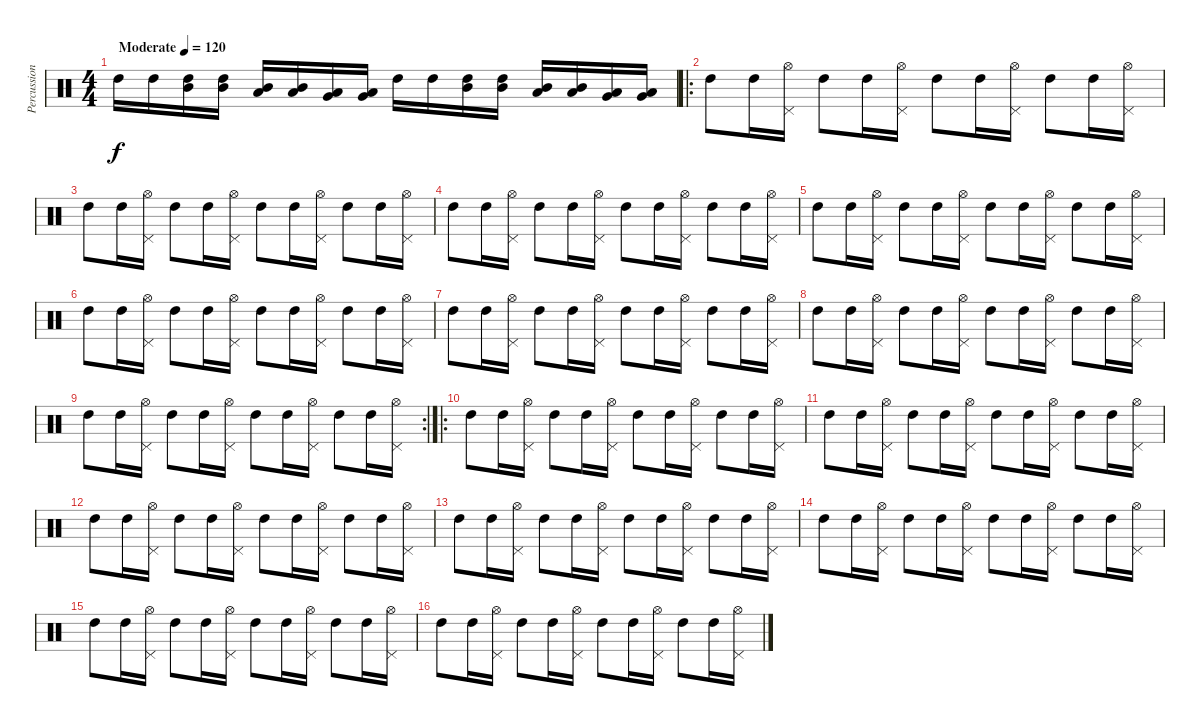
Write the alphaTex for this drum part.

\track ("Percussions" "Percussion") {instrument percussion}
\staff {score}
\articulation defaults
\ts (4 4)
\tempo (120 "Moderate")
\clef neutral
\ks c "High Tom (hit)".16{dy f} "High Tom (hit)".16
("Mid Tom (hit)" "High Tom (hit)").16 ("Mid Tom (hit)" "High Tom (hit)").16 ("Low Tom (hit)" "Mid Tom (hit)").16 ("Low Tom (hit)" "Mid Tom (hit)").16 ("Very Low Tom (hit)" "Low Tom (hit)").16 ("Very Low Tom (hit)" "Low Tom (hit)").16 "High Tom (hit)".16 "High Tom (hit)".16 ("Mid Tom (hit)" "High Tom (hit)").16 ("Mid Tom (hit)" "High Tom (hit)").16 ("Low Tom (hit)" "Mid Tom (hit)").16 ("Low Tom (hit)" "Mid Tom (hit)").16 ("Very Low Tom (hit)" "Low Tom (hit)").16 ("Very Low Tom (hit)" "Low Tom (hit)").16 |
\ro "High Tom (hit)".8 "High Tom (hit)".16
("Pedal Hi-Hat (hit)" "Hi-Hat (open)").16 "High Tom (hit)".8 "High Tom (hit)".16 ("Pedal Hi-Hat (hit)" "Hi-Hat (open)").16 "High Tom (hit)".8 "High Tom (hit)".16 ("Pedal Hi-Hat (hit)" "Hi-Hat (open)").16 "High Tom (hit)".8 "High Tom (hit)".16 ("Pedal Hi-Hat (hit)" "Hi-Hat (open)").16 |
"High Tom (hit)".8 "High Tom (hit)".16 ("Pedal Hi-Hat (hit)" "Hi-Hat (open)").16 "High Tom (hit)".8 "High Tom (hit)".16 ("Pedal Hi-Hat (hit)" "Hi-Hat (open)").16 "High Tom (hit)".8 "High Tom (hit)".16 ("Pedal Hi-Hat (hit)" "Hi-Hat (open)").16 "High Tom (hit)".8 "High Tom (hit)".16 ("Pedal Hi-Hat (hit)" "Hi-Hat (open)").16 |
"High Tom (hit)".8 "High Tom (hit)".16 ("Pedal Hi-Hat (hit)" "Hi-Hat (open)").16 "High Tom (hit)".8 "High Tom (hit)".16 ("Pedal Hi-Hat (hit)" "Hi-Hat (open)").16 "High Tom (hit)".8 "High Tom (hit)".16 ("Pedal Hi-Hat (hit)" "Hi-Hat (open)").16 "High Tom (hit)".8 "High Tom (hit)".16 ("Pedal Hi-Hat (hit)" "Hi-Hat (open)").16 |
"High Tom (hit)".8 "High Tom (hit)".16 ("Pedal Hi-Hat (hit)" "Hi-Hat (open)").16 "High Tom (hit)".8 "High Tom (hit)".16 ("Pedal Hi-Hat (hit)" "Hi-Hat (open)").16 "High Tom (hit)".8 "High Tom (hit)".16 ("Pedal Hi-Hat (hit)" "Hi-Hat (open)").16 "High Tom (hit)".8 "High Tom (hit)".16 ("Pedal Hi-Hat (hit)" "Hi-Hat (open)").16 |
"High Tom (hit)".8 "High Tom (hit)".16 ("Pedal Hi-Hat (hit)" "Hi-Hat (open)").16 "High Tom (hit)".8 "High Tom (hit)".16 ("Pedal Hi-Hat (hit)" "Hi-Hat (open)").16 "High Tom (hit)".8 "High Tom (hit)".16 ("Pedal Hi-Hat (hit)" "Hi-Hat (open)").16 "High Tom (hit)".8 "High Tom (hit)".16 ("Pedal Hi-Hat (hit)" "Hi-Hat (open)").16 |
"High Tom (hit)".8 "High Tom (hit)".16 ("Pedal Hi-Hat (hit)" "Hi-Hat (open)").16 "High Tom (hit)".8 "High Tom (hit)".16 ("Pedal Hi-Hat (hit)" "Hi-Hat (open)").16 "High Tom (hit)".8 "High Tom (hit)".16 ("Pedal Hi-Hat (hit)" "Hi-Hat (open)").16 "High Tom (hit)".8 "High Tom (hit)".16 ("Pedal Hi-Hat (hit)" "Hi-Hat (open)").16 |
"High Tom (hit)".8 "High Tom (hit)".16 ("Pedal Hi-Hat (hit)" "Hi-Hat (open)").16 "High Tom (hit)".8 "High Tom (hit)".16 ("Pedal Hi-Hat (hit)" "Hi-Hat (open)").16 "High Tom (hit)".8 "High Tom (hit)".16 ("Pedal Hi-Hat (hit)" "Hi-Hat (open)").16 "High Tom (hit)".8 "High Tom (hit)".16 ("Pedal Hi-Hat (hit)" "Hi-Hat (open)").16 |
\rc 2 "High Tom (hit)".8 "High Tom (hit)".16
("Pedal Hi-Hat (hit)" "Hi-Hat (open)").16 "High Tom (hit)".8 "High Tom (hit)".16 ("Pedal Hi-Hat (hit)" "Hi-Hat (open)").16 "High Tom (hit)".8 "High Tom (hit)".16 ("Pedal Hi-Hat (hit)" "Hi-Hat (open)").16 "High Tom (hit)".8 "High Tom (hit)".16 ("Pedal Hi-Hat (hit)" "Hi-Hat (open)").16 |
\ro "High Tom (hit)".8 "High Tom (hit)".16
("Pedal Hi-Hat (hit)" "Hi-Hat (open)").16 "High Tom (hit)".8 "High Tom (hit)".16 ("Pedal Hi-Hat (hit)" "Hi-Hat (open)").16 "High Tom (hit)".8 "High Tom (hit)".16 ("Pedal Hi-Hat (hit)" "Hi-Hat (open)").16 "High Tom (hit)".8 "High Tom (hit)".16 ("Pedal Hi-Hat (hit)" "Hi-Hat (open)").16 |
"High Tom (hit)".8 "High Tom (hit)".16 ("Pedal Hi-Hat (hit)" "Hi-Hat (open)").16 "High Tom (hit)".8 "High Tom (hit)".16 ("Pedal Hi-Hat (hit)" "Hi-Hat (open)").16 "High Tom (hit)".8 "High Tom (hit)".16 ("Pedal Hi-Hat (hit)" "Hi-Hat (open)").16 "High Tom (hit)".8 "High Tom (hit)".16 ("Pedal Hi-Hat (hit)" "Hi-Hat (open)").16 |
"High Tom (hit)".8 "High Tom (hit)".16 ("Pedal Hi-Hat (hit)" "Hi-Hat (open)").16 "High Tom (hit)".8 "High Tom (hit)".16 ("Pedal Hi-Hat (hit)" "Hi-Hat (open)").16 "High Tom (hit)".8 "High Tom (hit)".16 ("Pedal Hi-Hat (hit)" "Hi-Hat (open)").16 "High Tom (hit)".8 "High Tom (hit)".16 ("Pedal Hi-Hat (hit)" "Hi-Hat (open)").16 |
"High Tom (hit)".8 "High Tom (hit)".16 ("Pedal Hi-Hat (hit)" "Hi-Hat (open)").16 "High Tom (hit)".8 "High Tom (hit)".16 ("Pedal Hi-Hat (hit)" "Hi-Hat (open)").16 "High Tom (hit)".8 "High Tom (hit)".16 ("Pedal Hi-Hat (hit)" "Hi-Hat (open)").16 "High Tom (hit)".8 "High Tom (hit)".16 ("Pedal Hi-Hat (hit)" "Hi-Hat (open)").16 |
"High Tom (hit)".8 "High Tom (hit)".16 ("Pedal Hi-Hat (hit)" "Hi-Hat (open)").16 "High Tom (hit)".8 "High Tom (hit)".16 ("Pedal Hi-Hat (hit)" "Hi-Hat (open)").16 "High Tom (hit)".8 "High Tom (hit)".16 ("Pedal Hi-Hat (hit)" "Hi-Hat (open)").16 "High Tom (hit)".8 "High Tom (hit)".16 ("Pedal Hi-Hat (hit)" "Hi-Hat (open)").16 |
"High Tom (hit)".8 "High Tom (hit)".16 ("Pedal Hi-Hat (hit)" "Hi-Hat (open)").16 "High Tom (hit)".8 "High Tom (hit)".16 ("Pedal Hi-Hat (hit)" "Hi-Hat (open)").16 "High Tom (hit)".8 "High Tom (hit)".16 ("Pedal Hi-Hat (hit)" "Hi-Hat (open)").16 "High Tom (hit)".8 "High Tom (hit)".16 ("Pedal Hi-Hat (hit)" "Hi-Hat (open)").16 |
"High Tom (hit)".8 "High Tom (hit)".16 ("Pedal Hi-Hat (hit)" "Hi-Hat (open)").16 "High Tom (hit)".8 "High Tom (hit)".16 ("Pedal Hi-Hat (hit)" "Hi-Hat (open)").16 "High Tom (hit)".8 "High Tom (hit)".16 ("Pedal Hi-Hat (hit)" "Hi-Hat (open)").16 "High Tom (hit)".8 "High Tom (hit)".16 ("Pedal Hi-Hat (hit)" "Hi-Hat (open)").16
